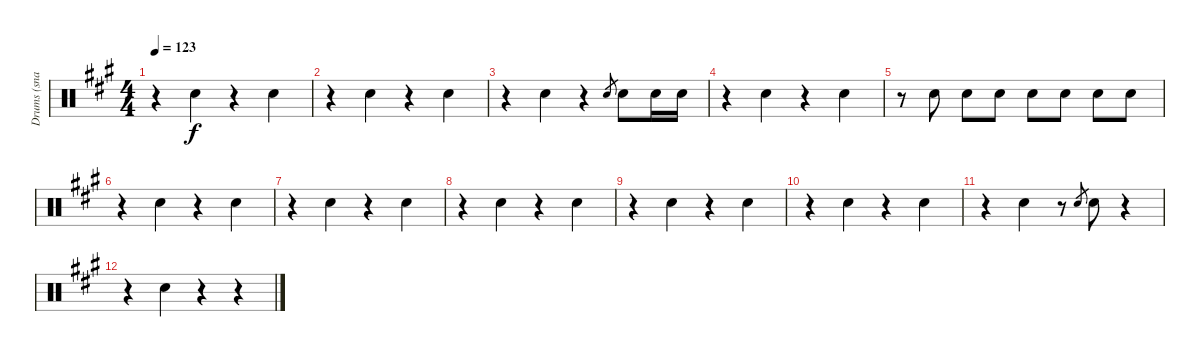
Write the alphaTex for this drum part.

\track ("Drums (snare)" "Drums (sna") {instrument percussion}
\staff {score}
\articulation defaults
\ts (4 4)
\tempo 123
\clef neutral
\ks a
r.4{dy f} "Snare (hit) 2".4 r.4 "Snare (hit) 2".4 |
r.4 "Snare (hit) 2".4 r.4 "Snare (hit) 2".4 |
r.4 "Snare (hit) 2".4 r.4 "Snare (hit) 2".8{gr} "Snare (hit) 2".8 "Snare (hit) 2".16 "Snare (hit) 2".16 |
r.4 "Snare (hit) 2".4 r.4 "Snare (hit) 2".4 |
r.8 "Snare (hit) 2".8 "Snare (hit) 2".8 "Snare (hit) 2".8 "Snare (hit) 2".8 "Snare (hit) 2".8 "Snare (hit) 2".8 "Snare (hit) 2".8 |
r.4 "Snare (hit) 2".4 r.4 "Snare (hit) 2".4 |
r.4 "Snare (hit) 2".4 r.4 "Snare (hit) 2".4 |
r.4 "Snare (hit) 2".4 r.4 "Snare (hit) 2".4 |
r.4 "Snare (hit) 2".4 r.4 "Snare (hit) 2".4 |
r.4 "Snare (hit) 2".4 r.4 "Snare (hit) 2".4 |
r.4 "Snare (hit) 2".4 r.8 "Snare (hit) 2".8{gr} "Snare (hit) 2".8 r.4 |
r.4 "Snare (hit) 2".4 r.4 r.4
